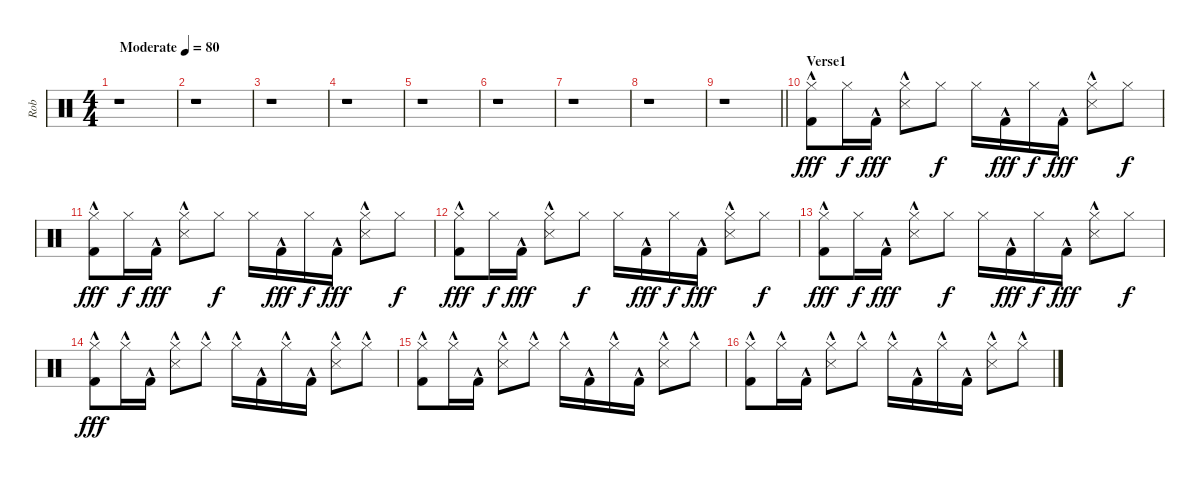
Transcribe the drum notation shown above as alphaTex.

\track ("Rob" "Rob") {instrument percussion}
\staff {score}
\articulation defaults
\ts (4 4)
\tempo (80 "Moderate")
\clef neutral
\ks c
r.1{dy fff} |
r.1 |
r.1 |
r.1 |
r.1 |
r.1 |
r.1 |
r.1 |
\barLineRight lightlight
r.1 |
\section ("" "Verse1")
("Hi-Hat (closed)" "Kick (hit) 2"{hac}).8 "Hi-Hat (closed)".16{dy f} "Kick (hit) 2"{hac}.16{dy fff} ("Hi-Hat (closed)" "Snare (side stick) 3"{hac}).8 "Hi-Hat (closed)".8{dy f} "Hi-Hat (closed)".16 "Kick (hit) 2"{hac}.16{dy fff} "Hi-Hat (closed)".16{dy f} "Kick (hit) 2"{hac}.16{dy fff} ("Hi-Hat (closed)" "Snare (side stick) 3"{hac}).8 "Hi-Hat (closed)".8{dy f} |
("Hi-Hat (closed)" "Kick (hit) 2"{hac}).8{dy fff} "Hi-Hat (closed)".16{dy f} "Kick (hit) 2"{hac}.16{dy fff} ("Hi-Hat (closed)" "Snare (side stick) 3"{hac}).8 "Hi-Hat (closed)".8{dy f} "Hi-Hat (closed)".16 "Kick (hit) 2"{hac}.16{dy fff} "Hi-Hat (closed)".16{dy f} "Kick (hit) 2"{hac}.16{dy fff} ("Hi-Hat (closed)" "Snare (side stick) 3"{hac}).8 "Hi-Hat (closed)".8{dy f} |
("Hi-Hat (closed)" "Kick (hit) 2"{hac}).8{dy fff} "Hi-Hat (closed)".16{dy f} "Kick (hit) 2"{hac}.16{dy fff} ("Hi-Hat (closed)" "Snare (side stick) 3"{hac}).8 "Hi-Hat (closed)".8{dy f} "Hi-Hat (closed)".16 "Kick (hit) 2"{hac}.16{dy fff} "Hi-Hat (closed)".16{dy f} "Kick (hit) 2"{hac}.16{dy fff} ("Hi-Hat (closed)" "Snare (side stick) 3"{hac}).8 "Hi-Hat (closed)".8{dy f} |
("Hi-Hat (closed)" "Kick (hit) 2"{hac}).8{dy fff} "Hi-Hat (closed)".16{dy f} "Kick (hit) 2"{hac}.16{dy fff} ("Hi-Hat (closed)" "Snare (side stick) 3"{hac}).8 "Hi-Hat (closed)".8{dy f} "Hi-Hat (closed)".16 "Kick (hit) 2"{hac}.16{dy fff} "Hi-Hat (closed)".16{dy f} "Kick (hit) 2"{hac}.16{dy fff} ("Hi-Hat (closed)" "Snare (side stick) 3"{hac}).8 "Hi-Hat (closed)".8{dy f} |
("Hi-Hat (closed)"{hac} "Kick (hit) 2"{hac}).8{dy fff} "Hi-Hat (closed)"{hac}.16 "Kick (hit) 2"{hac}.16 ("Hi-Hat (closed)"{hac} "Snare (side stick) 3"{hac}).8 "Hi-Hat (closed)"{hac}.8 "Hi-Hat (closed)"{hac}.16 "Kick (hit) 2"{hac}.16 "Hi-Hat (closed)"{hac}.16 "Kick (hit) 2"{hac}.16 ("Hi-Hat (closed)"{hac} "Snare (side stick) 3"{hac}).8 "Hi-Hat (closed)"{hac}.8 |
("Hi-Hat (closed)"{hac} "Kick (hit) 2"{hac}).8 "Hi-Hat (closed)"{hac}.16 "Kick (hit) 2"{hac}.16 ("Hi-Hat (closed)"{hac} "Snare (side stick) 3"{hac}).8 "Hi-Hat (closed)"{hac}.8 "Hi-Hat (closed)"{hac}.16 "Kick (hit) 2"{hac}.16 "Hi-Hat (closed)"{hac}.16 "Kick (hit) 2"{hac}.16 ("Hi-Hat (closed)"{hac} "Snare (side stick) 3"{hac}).8 "Hi-Hat (closed)"{hac}.8 |
("Hi-Hat (closed)"{hac} "Kick (hit) 2"{hac}).8 "Hi-Hat (closed)"{hac}.16 "Kick (hit) 2"{hac}.16 ("Hi-Hat (closed)"{hac} "Snare (side stick) 3"{hac}).8 "Hi-Hat (closed)"{hac}.8 "Hi-Hat (closed)"{hac}.16 "Kick (hit) 2"{hac}.16 "Hi-Hat (closed)"{hac}.16 "Kick (hit) 2"{hac}.16 ("Hi-Hat (closed)"{hac} "Snare (side stick) 3"{hac}).8 "Hi-Hat (closed)"{hac}.8
